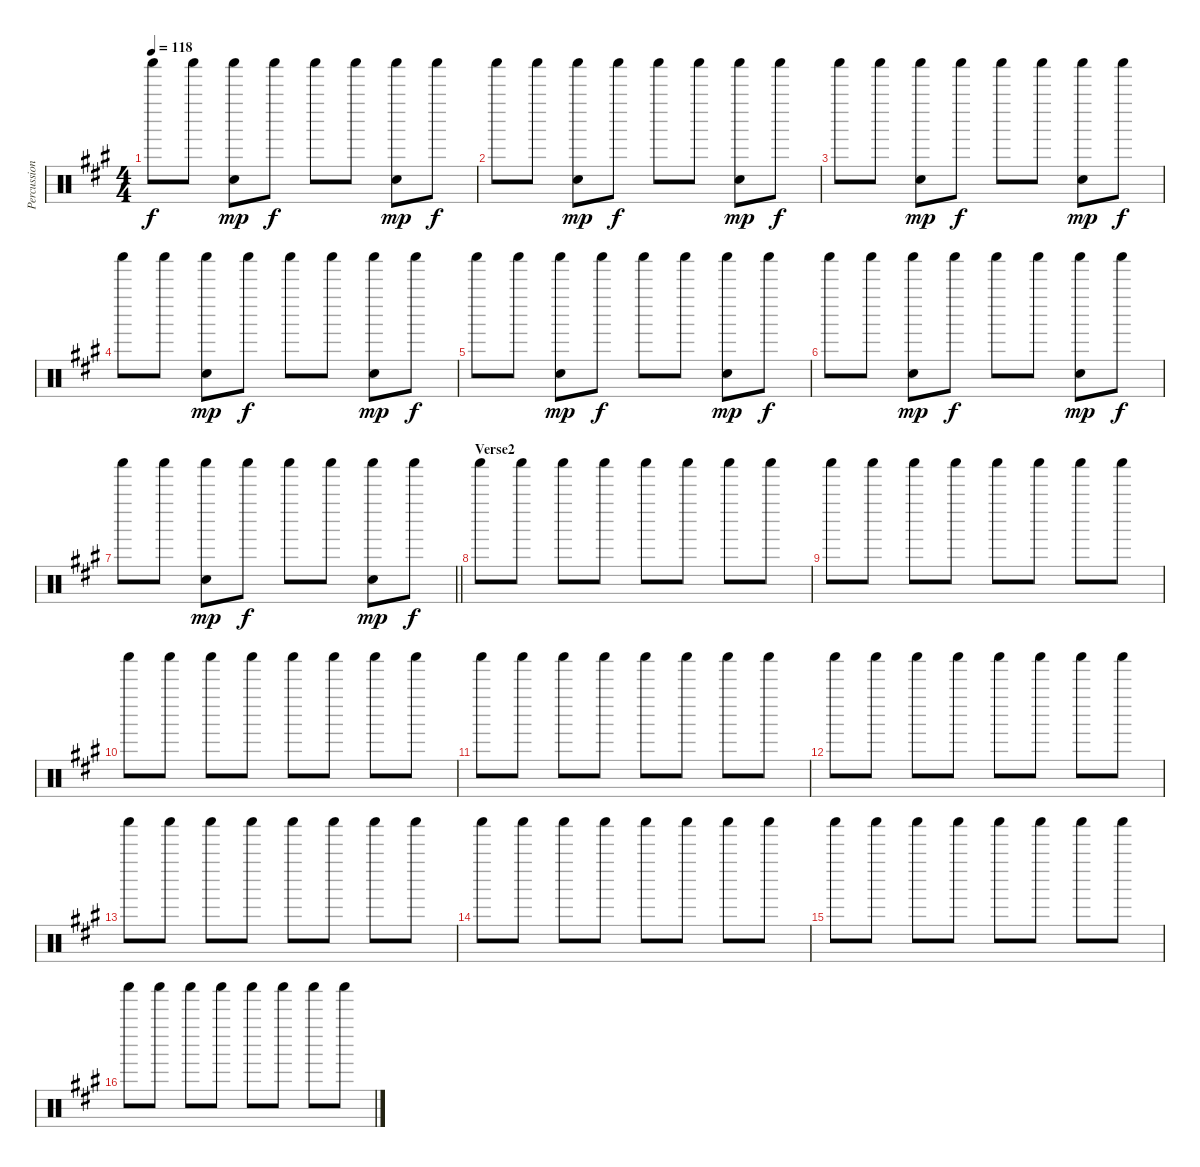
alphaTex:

\track ("Percussions" "Percussion") {instrument percussion}
\staff {score}
\articulation defaults
\ts (4 4)
\tempo 118
\clef neutral
\ks f#minor "Shaker (hit)".8{dy f} "Shaker (hit)".8
("Shaker (hit)" "Hand Clap (hit)").8{dy mp} "Shaker (hit)".8{dy f} "Shaker (hit)".8 "Shaker (hit)".8 ("Shaker (hit)" "Hand Clap (hit)").8{dy mp} "Shaker (hit)".8{dy f} |
"Shaker (hit)".8 "Shaker (hit)".8 ("Shaker (hit)" "Hand Clap (hit)").8{dy mp} "Shaker (hit)".8{dy f} "Shaker (hit)".8 "Shaker (hit)".8 ("Shaker (hit)" "Hand Clap (hit)").8{dy mp} "Shaker (hit)".8{dy f} |
"Shaker (hit)".8 "Shaker (hit)".8 ("Shaker (hit)" "Hand Clap (hit)").8{dy mp} "Shaker (hit)".8{dy f} "Shaker (hit)".8 "Shaker (hit)".8 ("Shaker (hit)" "Hand Clap (hit)").8{dy mp} "Shaker (hit)".8{dy f} |
"Shaker (hit)".8 "Shaker (hit)".8 ("Shaker (hit)" "Hand Clap (hit)").8{dy mp} "Shaker (hit)".8{dy f} "Shaker (hit)".8 "Shaker (hit)".8 ("Shaker (hit)" "Hand Clap (hit)").8{dy mp} "Shaker (hit)".8{dy f} |
"Shaker (hit)".8 "Shaker (hit)".8 ("Shaker (hit)" "Hand Clap (hit)").8{dy mp} "Shaker (hit)".8{dy f} "Shaker (hit)".8 "Shaker (hit)".8 ("Shaker (hit)" "Hand Clap (hit)").8{dy mp} "Shaker (hit)".8{dy f} |
"Shaker (hit)".8 "Shaker (hit)".8 ("Shaker (hit)" "Hand Clap (hit)").8{dy mp} "Shaker (hit)".8{dy f} "Shaker (hit)".8 "Shaker (hit)".8 ("Shaker (hit)" "Hand Clap (hit)").8{dy mp} "Shaker (hit)".8{dy f} |
\barLineRight lightlight "Shaker (hit)".8 "Shaker (hit)".8
("Shaker (hit)" "Hand Clap (hit)").8{dy mp} "Shaker (hit)".8{dy f} "Shaker (hit)".8 "Shaker (hit)".8 ("Shaker (hit)" "Hand Clap (hit)").8{dy mp} "Shaker (hit)".8{dy f} |
\section ("" "Verse2")
"Shaker (hit)".8 "Shaker (hit)".8 "Shaker (hit)".8 "Shaker (hit)".8 "Shaker (hit)".8 "Shaker (hit)".8 "Shaker (hit)".8 "Shaker (hit)".8 |
"Shaker (hit)".8 "Shaker (hit)".8 "Shaker (hit)".8 "Shaker (hit)".8 "Shaker (hit)".8 "Shaker (hit)".8 "Shaker (hit)".8 "Shaker (hit)".8 |
"Shaker (hit)".8 "Shaker (hit)".8 "Shaker (hit)".8 "Shaker (hit)".8 "Shaker (hit)".8 "Shaker (hit)".8 "Shaker (hit)".8 "Shaker (hit)".8 |
"Shaker (hit)".8 "Shaker (hit)".8 "Shaker (hit)".8 "Shaker (hit)".8 "Shaker (hit)".8 "Shaker (hit)".8 "Shaker (hit)".8 "Shaker (hit)".8 |
"Shaker (hit)".8 "Shaker (hit)".8 "Shaker (hit)".8 "Shaker (hit)".8 "Shaker (hit)".8 "Shaker (hit)".8 "Shaker (hit)".8 "Shaker (hit)".8 |
"Shaker (hit)".8 "Shaker (hit)".8 "Shaker (hit)".8 "Shaker (hit)".8 "Shaker (hit)".8 "Shaker (hit)".8 "Shaker (hit)".8 "Shaker (hit)".8 |
"Shaker (hit)".8 "Shaker (hit)".8 "Shaker (hit)".8 "Shaker (hit)".8 "Shaker (hit)".8 "Shaker (hit)".8 "Shaker (hit)".8 "Shaker (hit)".8 |
"Shaker (hit)".8 "Shaker (hit)".8 "Shaker (hit)".8 "Shaker (hit)".8 "Shaker (hit)".8 "Shaker (hit)".8 "Shaker (hit)".8 "Shaker (hit)".8 |
"Shaker (hit)".8 "Shaker (hit)".8 "Shaker (hit)".8 "Shaker (hit)".8 "Shaker (hit)".8 "Shaker (hit)".8 "Shaker (hit)".8 "Shaker (hit)".8
